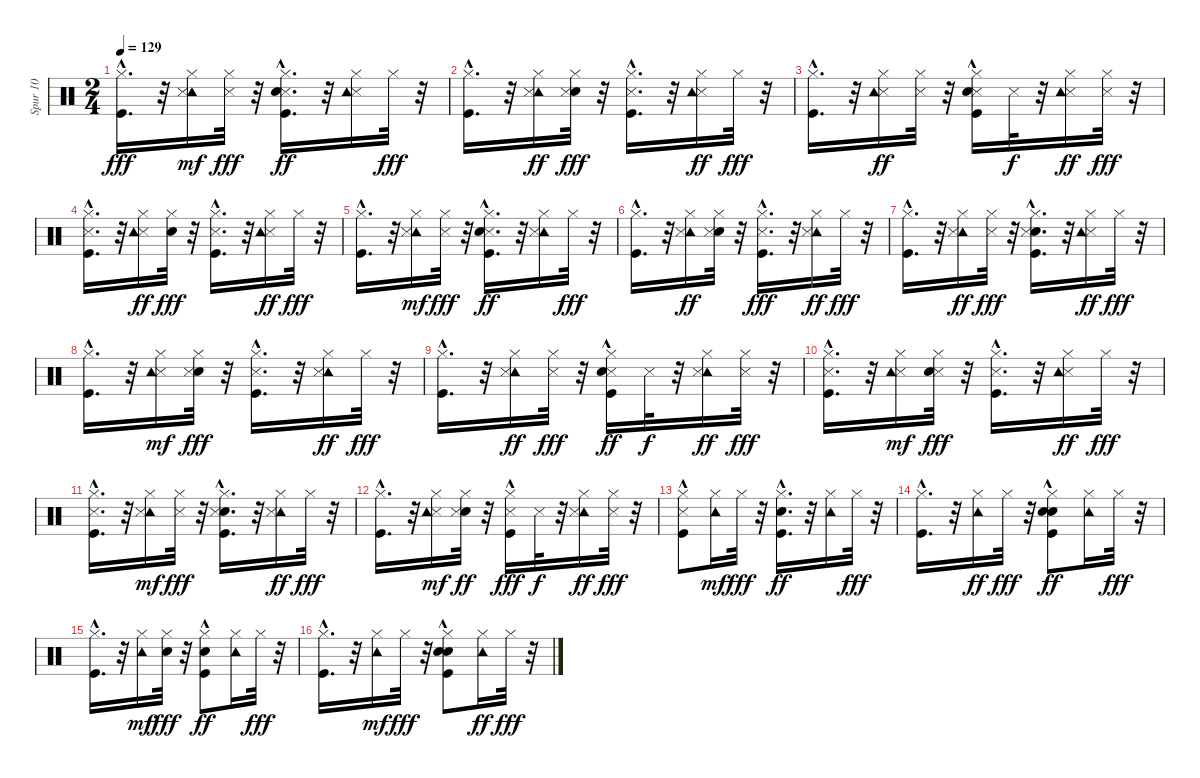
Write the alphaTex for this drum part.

\track ("Spur 10" "Spur 10") {instrument percussion}
\staff {score}
\articulation defaults
\ts (2 4)
\tempo 129
\clef neutral
\ks c
("Hi-Hat (closed)" "Kick (hit)"{hac}).16{d dy fff} r.32 ("Hi-Hat (closed)" "Tambourine (hit)" "Snare (side stick) 3").16{dy mf} ("Hi-Hat (closed)" "Snare (side stick) 3").32{dy fff} r.32 ("Kick (hit)"{hac} "Snare (side stick) 3" "Hi-Hat (closed)" "Snare (hit) 2").16{d dy ff} r.32 ("Snare (side stick) 3" "Hi-Hat (closed)" "Tambourine (hit)").16 "Hi-Hat (closed)".32{dy fff} r.32 |
("Hi-Hat (closed)" "Kick (hit)"{hac}).16{d} r.32 ("Tambourine (hit)" "Hi-Hat (closed)" "Snare (side stick) 3").16{dy ff} ("Snare (hit) 2" "Hi-Hat (closed)" "Snare (side stick) 3").32{dy fff} r.32 ("Hi-Hat (closed)" "Kick (hit)"{hac} "Snare (side stick) 3").16{d} r.32 ("Snare (side stick) 3" "Tambourine (hit)" "Hi-Hat (closed)").16{dy ff} "Hi-Hat (closed)".32{dy fff} r.32 |
("Hi-Hat (closed)" "Kick (hit)"{hac}).16{d} r.32 ("Snare (side stick) 3" "Tambourine (hit)" "Hi-Hat (closed)").16{dy ff} ("Hi-Hat (closed)" "Snare (side stick) 3").32 r.32 ("Hi-Hat (closed)" "Snare (side stick) 3" "Kick (hit)"{hac} "Snare (hit) 2").16 "Snare (side stick) 3".32{dy f} r.32 ("Snare (side stick) 3" "Tambourine (hit)" "Hi-Hat (closed)").16{dy ff} ("Snare (side stick) 3" "Hi-Hat (closed)").32{dy fff} r.32 |
("Kick (hit)"{hac} "Snare (side stick) 3" "Hi-Hat (closed)").16{d} r.32 ("Snare (side stick) 3" "Tambourine (hit)" "Hi-Hat (closed)").16{dy ff} ("Snare (hit) 2" "Hi-Hat (closed)").32{dy fff} r.32 ("Hi-Hat (closed)" "Snare (side stick) 3" "Kick (hit)"{hac}).16{d} r.32 ("Snare (side stick) 3" "Tambourine (hit)" "Hi-Hat (closed)").16{dy ff} "Hi-Hat (closed)".32{dy fff} r.32 |
("Kick (hit)"{hac} "Hi-Hat (closed)").16{d} r.32 ("Hi-Hat (closed)" "Tambourine (hit)" "Snare (side stick) 3").16{dy mf} ("Snare (side stick) 3" "Hi-Hat (closed)").32{dy fff} r.32 ("Snare (side stick) 3" "Hi-Hat (closed)" "Kick (hit)"{hac} "Snare (hit) 2").16{d dy ff} r.32 ("Tambourine (hit)" "Hi-Hat (closed)" "Snare (side stick) 3").16 "Hi-Hat (closed)".32{dy fff} r.32 |
("Hi-Hat (closed)" "Kick (hit)"{hac}).16{d} r.32 ("Tambourine (hit)" "Snare (side stick) 3" "Hi-Hat (closed)").16{dy ff} ("Hi-Hat (closed)" "Snare (hit) 2" "Snare (side stick) 3").32 r.32 ("Hi-Hat (closed)" "Kick (hit)"{hac} "Snare (side stick) 3").16{d dy fff} r.32 ("Tambourine (hit)" "Hi-Hat (closed)" "Snare (side stick) 3").16{dy ff} "Hi-Hat (closed)".32{dy fff} r.32 |
("Hi-Hat (closed)" "Kick (hit)"{hac}).16{d} r.32 ("Tambourine (hit)" "Hi-Hat (closed)" "Snare (side stick) 3").16{dy ff} ("Hi-Hat (closed)" "Snare (side stick) 3").32{dy fff} r.32 ("Snare (hit) 2" "Kick (hit)"{hac} "Snare (side stick) 3" "Hi-Hat (closed)").16{d} r.32 ("Snare (side stick) 3" "Tambourine (hit)" "Hi-Hat (closed)").16{dy ff} "Hi-Hat (closed)".32{dy fff} r.32 |
("Kick (hit)"{hac} "Hi-Hat (closed)").16{d} r.32 ("Snare (side stick) 3" "Hi-Hat (closed)" "Tambourine (hit)").16{dy mf} ("Snare (hit) 2" "Hi-Hat (closed)" "Snare (side stick) 3").32{dy fff} r.32 ("Hi-Hat (closed)" "Snare (side stick) 3" "Kick (hit)"{hac}).16{d} r.32 ("Tambourine (hit)" "Snare (side stick) 3" "Hi-Hat (closed)").16{dy ff} "Hi-Hat (closed)".32{dy fff} r.32 |
("Hi-Hat (closed)" "Kick (hit)"{hac}).16{d} r.32 ("Tambourine (hit)" "Hi-Hat (closed)" "Snare (side stick) 3").16{dy ff} ("Snare (side stick) 3" "Hi-Hat (closed)").32{dy fff} r.32 ("Kick (hit)"{hac} "Snare (side stick) 3" "Snare (hit) 2" "Hi-Hat (closed)").16{dy ff} "Snare (side stick) 3".32{dy f} r.32 ("Tambourine (hit)" "Snare (side stick) 3" "Hi-Hat (closed)").16{dy ff} ("Snare (side stick) 3" "Hi-Hat (closed)").32{dy fff} r.32 |
("Kick (hit)"{hac} "Hi-Hat (closed)" "Snare (side stick) 3").16{d} r.32 ("Hi-Hat (closed)" "Snare (side stick) 3" "Tambourine (hit)").16{dy mf} ("Snare (side stick) 3" "Snare (hit) 2" "Hi-Hat (closed)").32{dy fff} r.32 ("Snare (side stick) 3" "Hi-Hat (closed)" "Kick (hit)"{hac}).16{d} r.32 ("Hi-Hat (closed)" "Snare (side stick) 3" "Tambourine (hit)").16{dy ff} "Hi-Hat (closed)".32{dy fff} r.32 |
("Kick (hit)"{hac} "Snare (side stick) 3" "Hi-Hat (closed)").16{d} r.32 ("Hi-Hat (closed)" "Tambourine (hit)" "Snare (side stick) 3").16{dy mf} ("Snare (side stick) 3" "Hi-Hat (closed)").32{dy fff} r.32 ("Snare (hit) 2" "Hi-Hat (closed)" "Snare (side stick) 3" "Kick (hit)"{hac}).16{d} r.32 ("Tambourine (hit)" "Snare (side stick) 3" "Hi-Hat (closed)").16{dy ff} "Hi-Hat (closed)".32{dy fff} r.32 |
("Kick (hit)"{hac} "Hi-Hat (closed)").16{d} r.32 ("Snare (side stick) 3" "Hi-Hat (closed)" "Tambourine (hit)").16{dy mf} ("Hi-Hat (closed)" "Snare (hit) 2" "Snare (side stick) 3").32{dy ff} r.32 ("Hi-Hat (closed)" "Kick (hit)"{hac} "Snare (side stick) 3").16{dy fff} "Snare (side stick) 3".32{dy f} r.32 ("Hi-Hat (closed)" "Tambourine (hit)" "Snare (side stick) 3").16{dy ff} ("Hi-Hat (closed)" "Snare (side stick) 3").32{dy fff} r.32 |
("Hi-Hat (closed)" "Snare (side stick) 3" "Kick (hit)"{hac}).8 ("Hi-Hat (closed)" "Tambourine (hit)").16{dy mf} "Hi-Hat (closed)".32{dy fff} r.32 ("Hi-Hat (closed)" "Kick (hit)"{hac} "Snare (hit) 2").16{d dy ff} r.32 ("Hi-Hat (closed)" "Tambourine (hit)").16 "Hi-Hat (closed)".32{dy fff} r.32 |
("Hi-Hat (closed)" "Kick (hit)"{hac}).16{d} r.32 ("Tambourine (hit)" "Hi-Hat (closed)").16{dy ff} "Hi-Hat (closed)".32{dy fff} r.32 ("Hand Clap (hit)" "Kick (hit)"{hac} "Hi-Hat (closed)" "Snare (hit) 2").8{dy ff} ("Tambourine (hit)" "Hi-Hat (closed)").16 "Hi-Hat (closed)".32{dy fff} r.32 |
("Hi-Hat (closed)" "Kick (hit)"{hac}).16{d} r.32 ("Hi-Hat (closed)" "Tambourine (hit)").16{dy mf} ("Snare (hit) 2" "Hi-Hat (closed)").32{dy fff} r.32 ("Kick (hit)"{hac} "Hi-Hat (closed)" "Hand Clap (hit)").8{dy ff} ("Tambourine (hit)" "Hi-Hat (closed)").16 "Hi-Hat (closed)".32{dy fff} r.32 |
("Hi-Hat (closed)" "Kick (hit)"{hac}).16{d} r.32 ("Hi-Hat (closed)" "Tambourine (hit)").16{dy mf} "Hi-Hat (closed)".32{dy fff} r.32 ("Snare (hit) 2" "Hi-Hat (closed)" "Hand Clap (hit)" "Kick (hit)"{hac}).8 ("Tambourine (hit)" "Hi-Hat (closed)").16{dy ff} "Hi-Hat (closed)".32{dy fff} r.32
